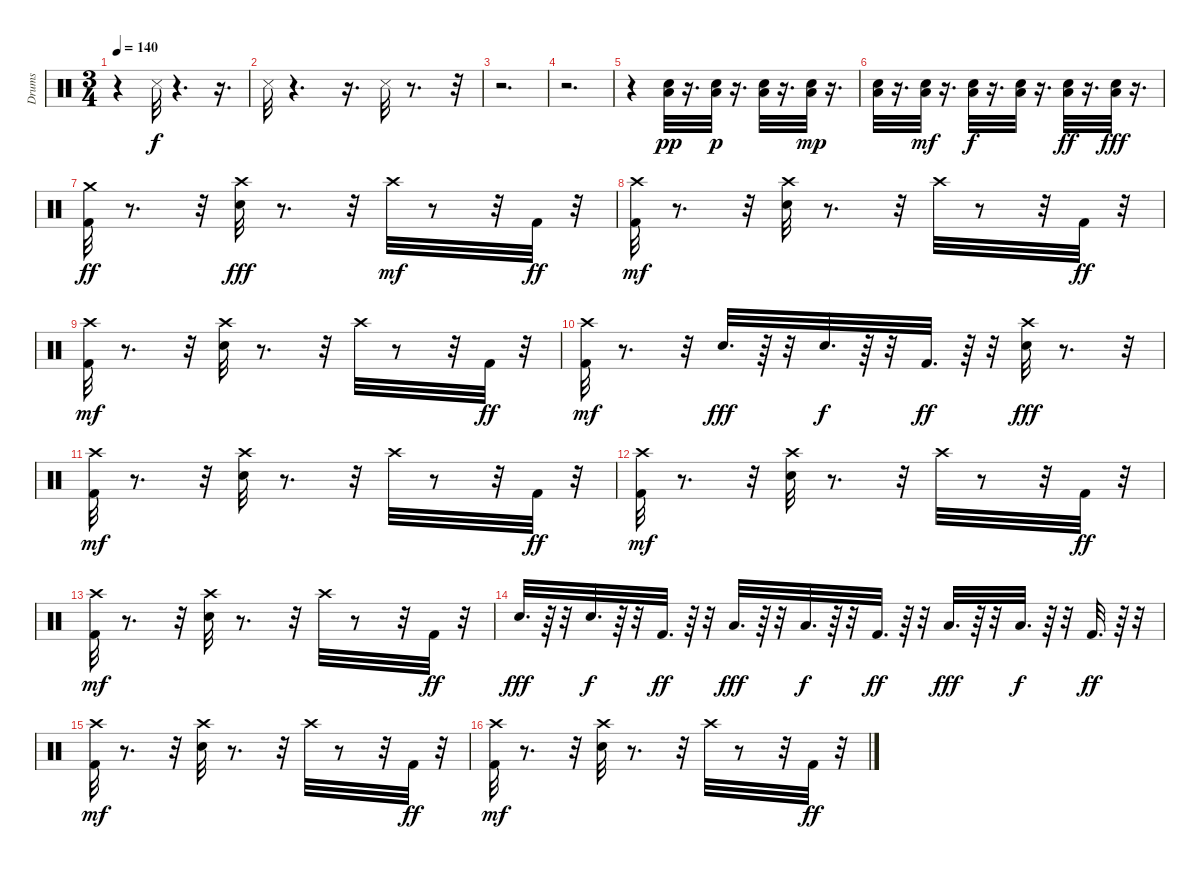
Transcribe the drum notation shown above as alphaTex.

\track ("Drums" "Drums") {instrument percussion}
\staff {score}
\articulation defaults
\ts (3 4)
\tempo 140
\clef neutral
\ks c
r.4{dy f} "Snare (side stick) 3".32{volume 14} r.4{d} r.16{d} |
"Snare (side stick) 3".32 r.4{d} r.16{d} "Snare (side stick) 3".32 r.8{d} r.32 |
r.2{d} |
r.2{d} |
r.4 ("Snare (hit) 2" "Low Floor Tom (hit)").32{dy pp} r.16{d} ("Snare (hit) 2" "Low Floor Tom (hit)").32{dy p} r.16{d} ("Snare (hit) 2" "Low Floor Tom (hit)").32 r.16{d} ("Snare (hit) 2" "Low Floor Tom (hit)").32{dy mp} r.16{d} |
("Snare (hit) 2" "Low Floor Tom (hit)").32 r.16{d} ("Snare (hit) 2" "Low Floor Tom (hit)").32{dy mf} r.16{d} ("Snare (hit) 2" "Low Floor Tom (hit)").32{dy f} r.16{d} ("Snare (hit) 2" "Low Floor Tom (hit)").32 r.16{d} ("Snare (hit) 2" "Low Floor Tom (hit)").32{dy ff} r.16{d} ("Snare (hit) 2" "Low Floor Tom (hit)").32{dy fff} r.16{d} |
("Crash medium (hit)" "Kick (hit) 2").32{dy ff} r.8{d} r.32 ("Crash high (hit)" "Snare (hit) 2").32{dy fff} r.8{d} r.32 "Crash high (hit)".32{dy mf} r.8 r.32 "Kick (hit) 2".32{dy ff} r.32 |
("Kick (hit) 2" "Crash high (hit)").32{dy mf} r.8{d} r.32 ("Snare (hit) 2" "Crash high (hit)").32 r.8{d} r.32 "Crash high (hit)".32 r.8 r.32 "Kick (hit) 2".32{dy ff} r.32 |
("Kick (hit) 2" "Crash high (hit)").32{dy mf} r.8{d} r.32 ("Snare (hit) 2" "Crash high (hit)").32 r.8{d} r.32 "Crash high (hit)".32 r.8 r.32 "Kick (hit) 2".32{dy ff} r.32 |
("Kick (hit) 2" "Crash high (hit)").32{dy mf} r.8{d} r.32 "Snare (hit) 2".32{d dy fff} r.64 r.32 "Snare (hit) 2".32{d dy f} r.64 r.32 "Kick (hit) 2".32{d dy ff} r.64 r.32 ("Snare (hit) 2" "Crash high (hit)").32{dy fff} r.8{d} r.32 |
("Kick (hit) 2" "Crash high (hit)").32{dy mf} r.8{d} r.32 ("Snare (hit) 2" "Crash high (hit)").32 r.8{d} r.32 "Crash high (hit)".32 r.8 r.32 "Kick (hit) 2".32{dy ff} r.32 |
("Kick (hit) 2" "Crash high (hit)").32{dy mf} r.8{d} r.32 ("Snare (hit) 2" "Crash high (hit)").32 r.8{d} r.32 "Crash high (hit)".32 r.8 r.32 "Kick (hit) 2".32{dy ff} r.32 |
("Kick (hit) 2" "Crash high (hit)").32{dy mf} r.8{d} r.32 ("Snare (hit) 2" "Crash high (hit)").32 r.8{d} r.32 "Crash high (hit)".32 r.8 r.32 "Kick (hit) 2".32{dy ff} r.32 |
"Snare (hit) 2".32{d dy fff} r.64 r.32 "Snare (hit) 2".32{d dy f} r.64 r.32 "Kick (hit) 2".32{d dy ff} r.64 r.32 "Low Tom (hit)".32{d dy fff} r.64 r.32 "Low Tom (hit)".32{d dy f} r.64 r.32 "Kick (hit) 2".32{d dy ff} r.64 r.32 "Low Floor Tom (hit)".32{d dy fff} r.64 r.32 "Low Floor Tom (hit)".32{d dy f} r.64 r.32 "Kick (hit) 2".32{d dy ff} r.64 r.32 |
("Kick (hit) 2" "Crash high (hit)").32{dy mf} r.8{d} r.32 ("Snare (hit) 2" "Crash high (hit)").32 r.8{d} r.32 "Crash high (hit)".32 r.8 r.32 "Kick (hit) 2".32{dy ff} r.32 |
("Kick (hit) 2" "Crash high (hit)").32{dy mf} r.8{d} r.32 ("Snare (hit) 2" "Crash high (hit)").32 r.8{d} r.32 "Crash high (hit)".32 r.8 r.32 "Kick (hit) 2".32{dy ff} r.32
